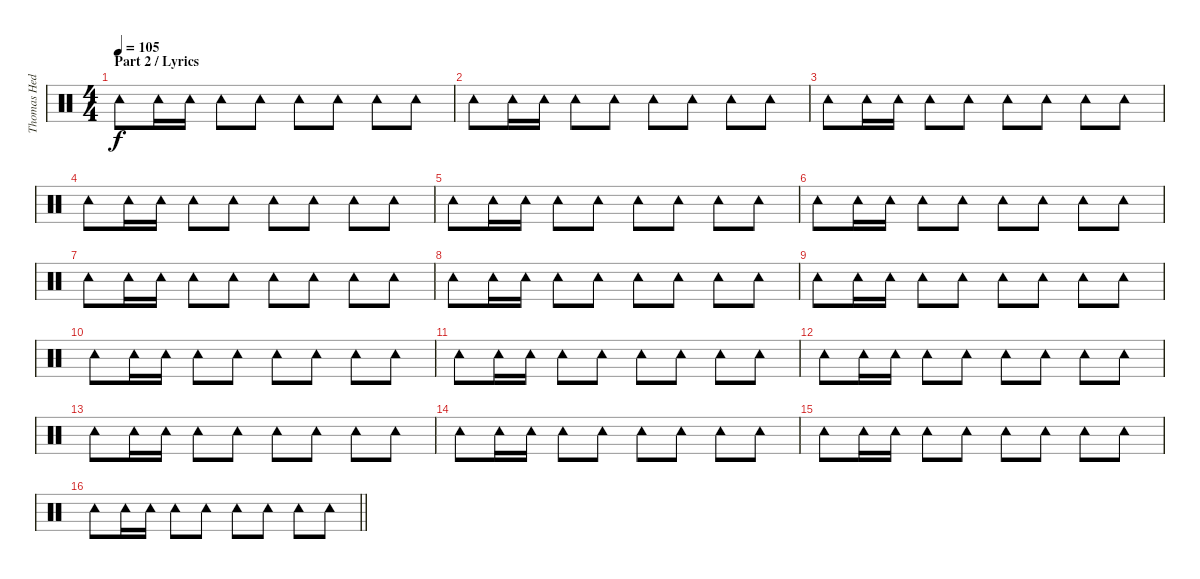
\track ("Thomas Hedlund" "Thomas Hed") {instrument percussion}
\staff {score}
\articulation defaults
\ts (4 4)
\section ("" "Part 2 / Lyrics")
\tempo 105
\clef neutral
\ks c "Tambourine (hit)".8{dy f} "Tambourine (hit)".16 "Tambourine (hit)".16 "Tambourine (hit)".8 "Tambourine (hit)".8 "Tambourine (hit)".8 "Tambourine (hit)".8 "Tambourine (hit)".8 "Tambourine (hit)".8
|
"Tambourine (hit)".8 "Tambourine (hit)".16 "Tambourine (hit)".16 "Tambourine (hit)".8 "Tambourine (hit)".8 "Tambourine (hit)".8 "Tambourine (hit)".8 "Tambourine (hit)".8 "Tambourine (hit)".8 |
"Tambourine (hit)".8 "Tambourine (hit)".16 "Tambourine (hit)".16 "Tambourine (hit)".8 "Tambourine (hit)".8 "Tambourine (hit)".8 "Tambourine (hit)".8 "Tambourine (hit)".8 "Tambourine (hit)".8 |
"Tambourine (hit)".8 "Tambourine (hit)".16 "Tambourine (hit)".16 "Tambourine (hit)".8 "Tambourine (hit)".8 "Tambourine (hit)".8 "Tambourine (hit)".8 "Tambourine (hit)".8 "Tambourine (hit)".8 |
"Tambourine (hit)".8 "Tambourine (hit)".16 "Tambourine (hit)".16 "Tambourine (hit)".8 "Tambourine (hit)".8 "Tambourine (hit)".8 "Tambourine (hit)".8 "Tambourine (hit)".8 "Tambourine (hit)".8 |
"Tambourine (hit)".8 "Tambourine (hit)".16 "Tambourine (hit)".16 "Tambourine (hit)".8 "Tambourine (hit)".8 "Tambourine (hit)".8 "Tambourine (hit)".8 "Tambourine (hit)".8 "Tambourine (hit)".8 |
"Tambourine (hit)".8 "Tambourine (hit)".16 "Tambourine (hit)".16 "Tambourine (hit)".8 "Tambourine (hit)".8 "Tambourine (hit)".8 "Tambourine (hit)".8 "Tambourine (hit)".8 "Tambourine (hit)".8 |
"Tambourine (hit)".8 "Tambourine (hit)".16 "Tambourine (hit)".16 "Tambourine (hit)".8 "Tambourine (hit)".8 "Tambourine (hit)".8 "Tambourine (hit)".8 "Tambourine (hit)".8 "Tambourine (hit)".8 |
"Tambourine (hit)".8 "Tambourine (hit)".16 "Tambourine (hit)".16 "Tambourine (hit)".8 "Tambourine (hit)".8 "Tambourine (hit)".8 "Tambourine (hit)".8 "Tambourine (hit)".8 "Tambourine (hit)".8 |
"Tambourine (hit)".8 "Tambourine (hit)".16 "Tambourine (hit)".16 "Tambourine (hit)".8 "Tambourine (hit)".8 "Tambourine (hit)".8 "Tambourine (hit)".8 "Tambourine (hit)".8 "Tambourine (hit)".8 |
"Tambourine (hit)".8 "Tambourine (hit)".16 "Tambourine (hit)".16 "Tambourine (hit)".8 "Tambourine (hit)".8 "Tambourine (hit)".8 "Tambourine (hit)".8 "Tambourine (hit)".8 "Tambourine (hit)".8 |
"Tambourine (hit)".8 "Tambourine (hit)".16 "Tambourine (hit)".16 "Tambourine (hit)".8 "Tambourine (hit)".8 "Tambourine (hit)".8 "Tambourine (hit)".8 "Tambourine (hit)".8 "Tambourine (hit)".8 |
"Tambourine (hit)".8 "Tambourine (hit)".16 "Tambourine (hit)".16 "Tambourine (hit)".8 "Tambourine (hit)".8 "Tambourine (hit)".8 "Tambourine (hit)".8 "Tambourine (hit)".8 "Tambourine (hit)".8 |
"Tambourine (hit)".8 "Tambourine (hit)".16 "Tambourine (hit)".16 "Tambourine (hit)".8 "Tambourine (hit)".8 "Tambourine (hit)".8 "Tambourine (hit)".8 "Tambourine (hit)".8 "Tambourine (hit)".8 |
"Tambourine (hit)".8 "Tambourine (hit)".16 "Tambourine (hit)".16 "Tambourine (hit)".8 "Tambourine (hit)".8 "Tambourine (hit)".8 "Tambourine (hit)".8 "Tambourine (hit)".8 "Tambourine (hit)".8 |
\barLineRight lightlight "Tambourine (hit)".8 "Tambourine (hit)".16 "Tambourine (hit)".16 "Tambourine (hit)".8 "Tambourine (hit)".8 "Tambourine (hit)".8 "Tambourine (hit)".8 "Tambourine (hit)".8 "Tambourine (hit)".8
